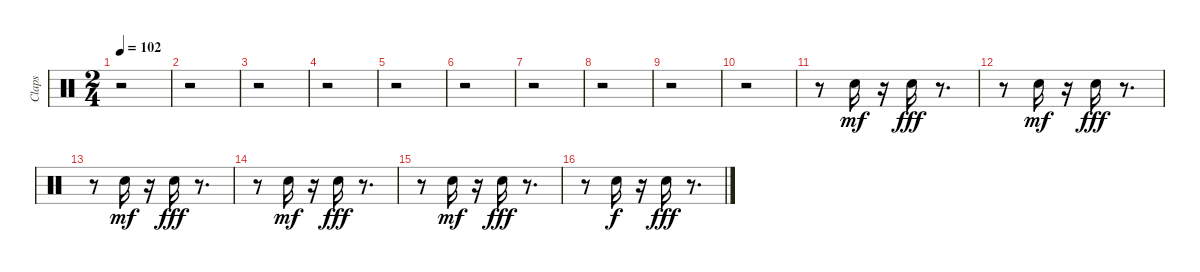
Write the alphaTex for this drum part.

\track ("Claps" "Claps") {instrument percussion}
\staff {score}
\articulation defaults
\ts (2 4)
\tempo 102
\clef neutral
\ks c
r.2{dy fff} |
r.2 |
r.2 |
r.2 |
r.2 |
r.2 |
r.2 |
r.2 |
r.2 |
r.2 |
r.8 "Hand Clap (hit)".16{dy mf} r.16 "Hand Clap (hit)".16{dy fff} r.8{d} |
r.8 "Hand Clap (hit)".16{dy mf} r.16 "Hand Clap (hit)".16{dy fff} r.8{d} |
r.8 "Hand Clap (hit)".16{dy mf} r.16 "Hand Clap (hit)".16{dy fff} r.8{d} |
r.8 "Hand Clap (hit)".16{dy mf} r.16 "Hand Clap (hit)".16{dy fff} r.8{d} |
r.8 "Hand Clap (hit)".16{dy mf} r.16 "Hand Clap (hit)".16{dy fff} r.8{d} |
r.8 "Hand Clap (hit)".16{dy f} r.16 "Hand Clap (hit)".16{dy fff} r.8{d}
